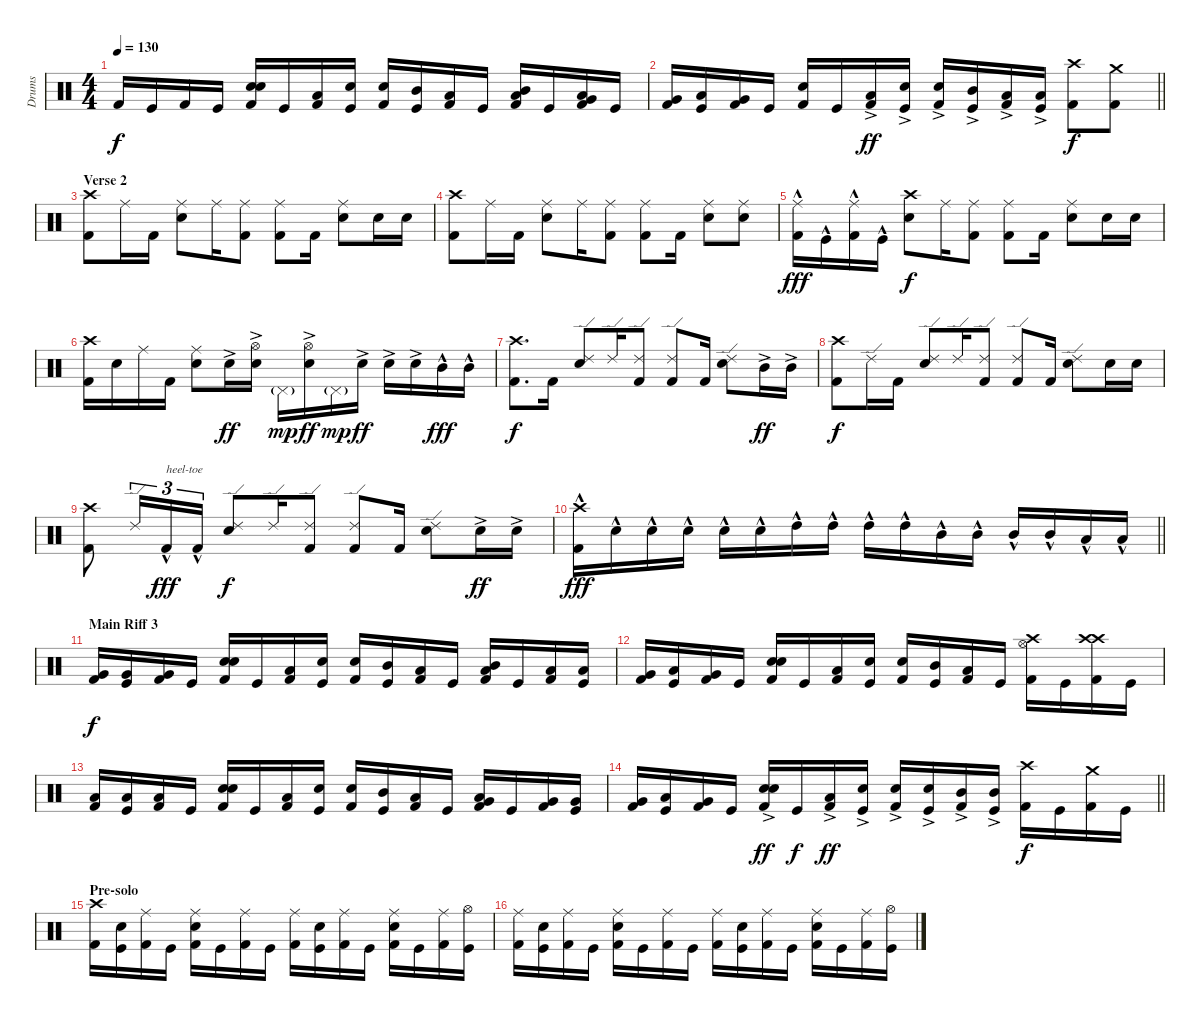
\track ("Drums" "Drums") {instrument percussion}
\staff {score}
\articulation defaults
\ts (4 4)
\tempo 130
\clef neutral
\ks c "Kick (hit) 2".16{dy f} "Kick (hit)".16 "Kick (hit) 2".16 "Kick (hit)".16
("Snare (hit) 2" "Snare (hit) 2" "Kick (hit) 2").16 "Kick (hit)".16 ("Low Tom (hit)" "Kick (hit) 2").16 ("Snare (hit) 2" "Kick (hit)").16 ("Snare (hit) 2" "Kick (hit) 2").16 ("Mid Tom (hit)" "Kick (hit)").16 ("Low Tom (hit)" "Kick (hit) 2").16 "Kick (hit)".16 ("Mid Tom (hit)" "Low Tom (hit)" "Kick (hit) 2").16 "Kick (hit)".16 ("Low Tom (hit)" "Very Low Tom (hit)" "Kick (hit) 2").16 "Kick (hit)".16 |
\barLineRight lightlight
("Very Low Tom (hit)" "Kick (hit) 2").16 ("Low Tom (hit)" "Kick (hit)").16 ("Very Low Tom (hit)" "Kick (hit) 2").16 "Kick (hit)".16 ("Snare (hit) 2" "Kick (hit) 2").16 "Kick (hit)".16 ("Low Tom (hit)"{ac} "Kick (hit) 2").16{dy ff} ("Snare (hit) 2"{ac} "Kick (hit)").16 ("Snare (hit) 2"{ac} "Kick (hit) 2").16 ("Mid Tom (hit)"{ac} "Kick (hit)").16 ("Low Tom (hit)"{ac} "Kick (hit) 2").16 ("Low Tom (hit)"{ac} "Kick (hit)").16 ("Crash high (hit)" "Kick (hit) 2").8{dy f} ("Crash medium (hit)" "Kick (hit) 2").8 |
\section ("" "Verse 2")
("Crash high (hit)" "Kick (hit) 2").8 "Ride (middle)".16 "Kick (hit) 2".16 ("Ride (middle)" "Snare (hit) 2").8 "Ride (middle)".16 ("Ride (middle)" "Kick (hit) 2").8 ("Ride (middle)" "Kick (hit) 2").8 "Kick (hit) 2".16 ("Ride (middle)" "Snare (hit) 2").8 "Snare (hit) 2".16 "Snare (hit) 2".16 |
("Crash high (hit)" "Kick (hit) 2").8 "Ride (middle)".16 "Kick (hit) 2".16 ("Ride (middle)" "Snare (hit) 2").8 "Ride (middle)".16 ("Ride (middle)" "Kick (hit) 2").8 ("Ride (middle)" "Kick (hit) 2").8 "Kick (hit) 2".16 ("Ride (middle)" "Snare (hit) 2").8 ("Ride (middle)" "Snare (hit) 2").8 |
("Ride (middle)" "Kick (hit) 2"{hac}).16{dy fff} "Kick (hit)"{hac}.16 ("Ride (middle)" "Kick (hit) 2"{hac}).16 "Kick (hit)"{hac}.16 ("Crash high (hit)" "Snare (hit) 2").8{dy f} "Ride (middle)".16 ("Ride (middle)" "Kick (hit) 2").8 ("Ride (middle)" "Kick (hit) 2").8 "Kick (hit) 2".16 ("Ride (middle)" "Snare (hit) 2").8 "Snare (hit) 2".16 "Snare (hit) 2".16 |
("Crash high (hit)" "Kick (hit) 2").16 "Snare (hit) 2".16 "Ride (middle)".16 "Kick (hit) 2".16 ("Ride (middle)" "Snare (hit) 2").8 "Snare (hit) 2"{ac}.16{dy ff} ("Hi-Hat (open)" "Snare (hit) 2"{ac}).16 "Pedal Hi-Hat (hit)"{g}.16{dy mp} ("Hi-Hat (open)" "Snare (hit) 2"{ac}).16{dy ff} "Pedal Hi-Hat (hit)"{g}.16{dy mp} "Snare (hit) 2"{ac}.16{dy ff} "Snare (hit) 2"{ac}.16 "Snare (hit) 2"{ac}.16 "Mid Tom (hit)"{hac}.16{dy fff} "Mid Tom (hit)"{hac}.16 |
("Crash high (hit)" "Kick (hit) 2").8{d dy f} "Kick (hit) 2".16 ("Ride (edge) 2" "Snare (hit) 2").8 "Ride (edge) 2".16 ("Ride (edge) 2" "Kick (hit) 2").8 ("Ride (edge) 2" "Kick (hit) 2").8 "Kick (hit) 2".16 ("Ride (edge) 2" "Snare (hit) 2").8 "Mid Tom (hit)"{ac}.16{dy ff} "Mid Tom (hit)"{ac}.16 |
("Crash high (hit)" "Kick (hit) 2").8{dy f} "Ride (edge) 2".16 "Kick (hit) 2".16 ("Ride (edge) 2" "Snare (hit) 2").8 "Ride (edge) 2".16 ("Ride (edge) 2" "Kick (hit) 2").8 ("Ride (edge) 2" "Kick (hit) 2").8 "Kick (hit) 2".16 ("Ride (edge) 2" "Snare (hit) 2").8 "Snare (hit) 2".16 "Snare (hit) 2".16 |
("Crash high (hit)" "Kick (hit) 2").8 "Ride (edge) 2".16{tu (3 2)} "Kick (hit) 2"{hac}.16{tu (3 2) txt "heel-toe" dy fff} "Kick (hit) 2"{hac}.16{tu (3 2)} ("Ride (edge) 2" "Snare (hit) 2").8{dy f} "Ride (edge) 2".16 ("Ride (edge) 2" "Kick (hit) 2").8 ("Ride (edge) 2" "Kick (hit) 2").8 "Kick (hit) 2".16 ("Ride (edge) 2" "Snare (hit) 2").8 "Snare (hit) 2"{ac}.16{dy ff} "Snare (hit) 2"{ac}.16 |
\barLineRight lightlight
("Crash high (hit)"{hac} "Kick (hit) 2"{hac}).16{dy fff} "Snare (hit) 2"{hac}.16 "Snare (hit) 2"{hac}.16 "Snare (hit) 2"{hac}.16 "Snare (hit) 2"{hac}.16 "Snare (hit) 2"{hac}.16 "High Tom (hit)"{hac}.16 "High Tom (hit)"{hac}.16 "High Tom (hit)"{hac}.16 "High Tom (hit)"{hac}.16 "Mid Tom (hit)"{hac}.16 "Mid Tom (hit)"{hac}.16 "Mid Tom (hit)"{hac}.16 "Mid Tom (hit)"{hac}.16 "Low Tom (hit)"{hac}.16 "Low Tom (hit)"{hac}.16 |
\section ("" "Main Riff 3")
("Very Low Tom (hit)" "Kick (hit) 2").16{dy f} ("Very Low Tom (hit)" "Kick (hit)").16 ("Very Low Tom (hit)" "Kick (hit) 2").16 "Kick (hit)".16 ("Snare (hit) 2" "Snare (hit) 2" "Kick (hit) 2").16 "Kick (hit)".16 ("Low Tom (hit)" "Kick (hit) 2").16 ("Snare (hit) 2" "Kick (hit)").16 ("Snare (hit) 2" "Kick (hit) 2").16 ("Mid Tom (hit)" "Kick (hit)").16 ("Low Tom (hit)" "Kick (hit) 2").16 "Kick (hit)".16 ("Mid Tom (hit)" "Low Tom (hit)" "Kick (hit) 2").16 "Kick (hit)".16 ("Low Tom (hit)" "Kick (hit) 2").16 ("Low Tom (hit)" "Kick (hit)").16 |
("Very Low Tom (hit)" "Kick (hit) 2").16 ("Low Tom (hit)" "Kick (hit)").16 ("Very Low Tom (hit)" "Kick (hit) 2").16 "Kick (hit)".16 ("Snare (hit) 2" "Snare (hit) 2" "Kick (hit) 2").16 "Kick (hit)".16 ("Low Tom (hit)" "Kick (hit) 2").16 ("Snare (hit) 2" "Kick (hit)").16 ("Snare (hit) 2" "Kick (hit) 2").16 ("Mid Tom (hit)" "Kick (hit)").16 ("Low Tom (hit)" "Kick (hit) 2").16 "Kick (hit)".16 ("Crash high (hit)" "Hi-Hat (open)" "Kick (hit) 2").16 "Kick (hit)".16 ("Crash high (hit)" "Crash high (hit)" "Kick (hit) 2").16 "Kick (hit)".16 |
("Low Tom (hit)" "Kick (hit) 2").16 ("Low Tom (hit)" "Kick (hit)").16 ("Low Tom (hit)" "Kick (hit) 2").16 "Kick (hit)".16 ("Snare (hit) 2" "Snare (hit) 2" "Kick (hit) 2").16 "Kick (hit)".16 ("Low Tom (hit)" "Kick (hit) 2").16 ("Snare (hit) 2" "Kick (hit)").16 ("Snare (hit) 2" "Kick (hit) 2").16 ("Mid Tom (hit)" "Kick (hit)").16 ("Low Tom (hit)" "Kick (hit) 2").16 "Kick (hit)".16 ("Low Tom (hit)" "Very Low Tom (hit)" "Kick (hit) 2").16 "Kick (hit)".16 ("Very Low Tom (hit)" "Kick (hit) 2").16 ("Very Low Tom (hit)" "Kick (hit)").16 |
\barLineRight lightlight
("Very Low Tom (hit)" "Kick (hit) 2").16 ("Low Tom (hit)" "Kick (hit)").16 ("Very Low Tom (hit)" "Kick (hit) 2").16 "Kick (hit)".16 ("Snare (hit) 2"{ac} "Snare (hit) 2"{ac} "Kick (hit) 2").16{dy ff} "Kick (hit)".16{dy f} ("Low Tom (hit)"{ac} "Kick (hit) 2").16{dy ff} ("Snare (hit) 2"{ac} "Kick (hit)").16 ("Snare (hit) 2"{ac} "Kick (hit) 2").16 ("Snare (hit) 2"{ac} "Kick (hit)").16 ("Mid Tom (hit)"{ac} "Kick (hit) 2").16 ("Mid Tom (hit)"{ac} "Kick (hit)").16 ("Crash high (hit)" "Kick (hit) 2").16{dy f} "Kick (hit)".16 ("Crash medium (hit)" "Kick (hit) 2").16 "Kick (hit)".16 |
\section ("" "Pre-solo")
("Crash high (hit)" "Kick (hit) 2").16 ("Snare (hit) 2" "Kick (hit)").16 ("Ride (middle)" "Kick (hit) 2").16 "Kick (hit)".16 ("Ride (middle)" "Snare (hit) 2" "Kick (hit) 2").16 "Kick (hit)".16 ("Ride (middle)" "Kick (hit) 2").16 "Kick (hit)".16 ("Ride (middle)" "Kick (hit) 2").16 ("Snare (hit) 2" "Kick (hit)").16 ("Ride (middle)" "Kick (hit) 2").16 "Kick (hit)".16 ("Ride (middle)" "Snare (hit) 2" "Kick (hit) 2").16 "Kick (hit)".16 ("Ride (middle)" "Kick (hit) 2").16 ("Hi-Hat (open)" "Kick (hit)").16 |
("Ride (middle)" "Kick (hit) 2").16 ("Snare (hit) 2" "Kick (hit)").16 ("Ride (middle)" "Kick (hit) 2").16 "Kick (hit)".16 ("Ride (middle)" "Snare (hit) 2" "Kick (hit) 2").16 "Kick (hit)".16 ("Ride (middle)" "Kick (hit) 2").16 "Kick (hit)".16 ("Ride (middle)" "Kick (hit) 2").16 ("Snare (hit) 2" "Kick (hit)").16 ("Ride (middle)" "Kick (hit) 2").16 "Kick (hit)".16 ("Ride (middle)" "Snare (hit) 2" "Kick (hit) 2").16 "Kick (hit)".16 ("Ride (middle)" "Kick (hit) 2").16 ("Hi-Hat (open)" "Kick (hit)").16
